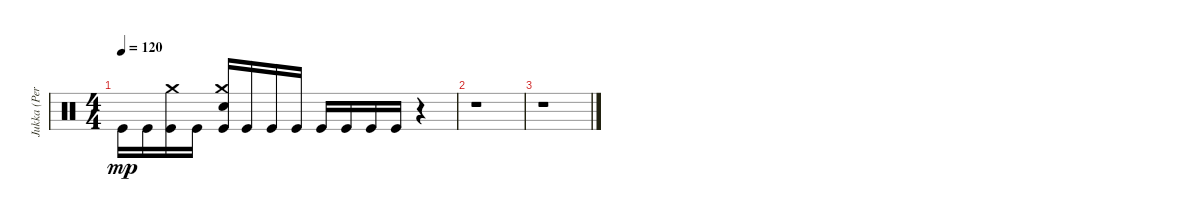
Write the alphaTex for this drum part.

\track ("Jukka (Percussion)" "Jukka (Per") {instrument percussion}
\staff {score}
\articulation defaults
\ts (4 4)
\tempo 120
\clef neutral
\ks c "Kick (hit)".16{dy mp} "Kick (hit)".16
("Kick (hit)" "Crash medium (hit)").16 "Kick (hit)".16 ("Kick (hit)" "Electric Snare (hit)" "Crash medium (hit)").16 "Kick (hit)".16 "Kick (hit)".16 "Kick (hit)".16 "Kick (hit)".16 "Kick (hit)".16 "Kick (hit)".16 "Kick (hit)".16 r.4 |
r.1 |
r.1
